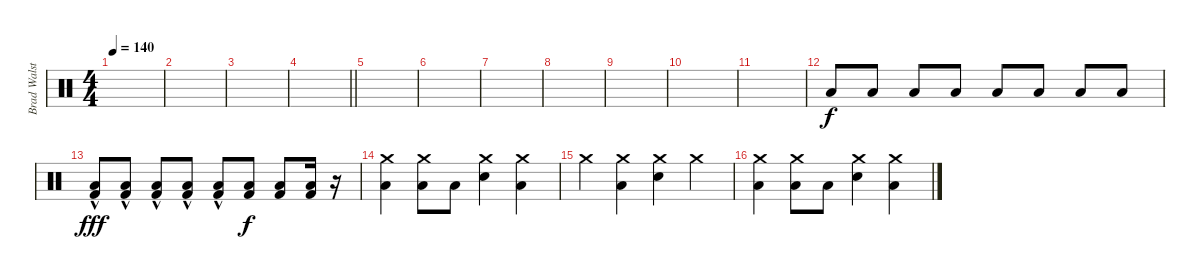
\track ("Brad Walst" "Brad Walst") {instrument percussion}
\staff {score}
\articulation defaults
\ts (4 4)
\tempo 140
\clef neutral
\ks c
|
|
|
\barLineRight lightlight
|
|
|
|
|
|
|
|
"Low Floor Tom (hit)".8 "Low Floor Tom (hit)".8 "Low Floor Tom (hit)".8 "Low Floor Tom (hit)".8 "Low Floor Tom (hit)".8 "Low Floor Tom (hit)".8 "Low Floor Tom (hit)".8 "Low Floor Tom (hit)".8 |
("Low Floor Tom (hit)"{hac} "Kick (hit) 2").8{dy fff} ("Low Floor Tom (hit)"{hac} "Kick (hit) 2").8 ("Low Floor Tom (hit)"{hac} "Kick (hit) 2").8 ("Low Floor Tom (hit)"{hac} "Kick (hit) 2").8 ("Low Floor Tom (hit)"{hac} "Kick (hit) 2").8 ("Low Floor Tom (hit)" "Kick (hit) 2").8{dy f} ("Low Floor Tom (hit)" "Kick (hit) 2").8 ("Low Floor Tom (hit)" "Kick (hit) 2").16 r.16 |
("Low Floor Tom (hit)" "Crash medium (hit)").4 ("Low Floor Tom (hit)" "Crash medium (hit)").8 "Low Floor Tom (hit)".8 ("Electric Snare (hit)" "Crash medium (hit)").4 ("Crash medium (hit)" "Low Floor Tom (hit)").4 |
"Crash medium (hit)".4 ("Low Floor Tom (hit)" "Crash medium (hit)").4 ("Crash medium (hit)" "Electric Snare (hit)").4 "Crash medium (hit)".4 |
("Low Floor Tom (hit)" "Crash medium (hit)").4 ("Low Floor Tom (hit)" "Crash medium (hit)").8 "Low Floor Tom (hit)".8 ("Crash medium (hit)" "Electric Snare (hit)").4 ("Low Floor Tom (hit)" "Crash medium (hit)").4
